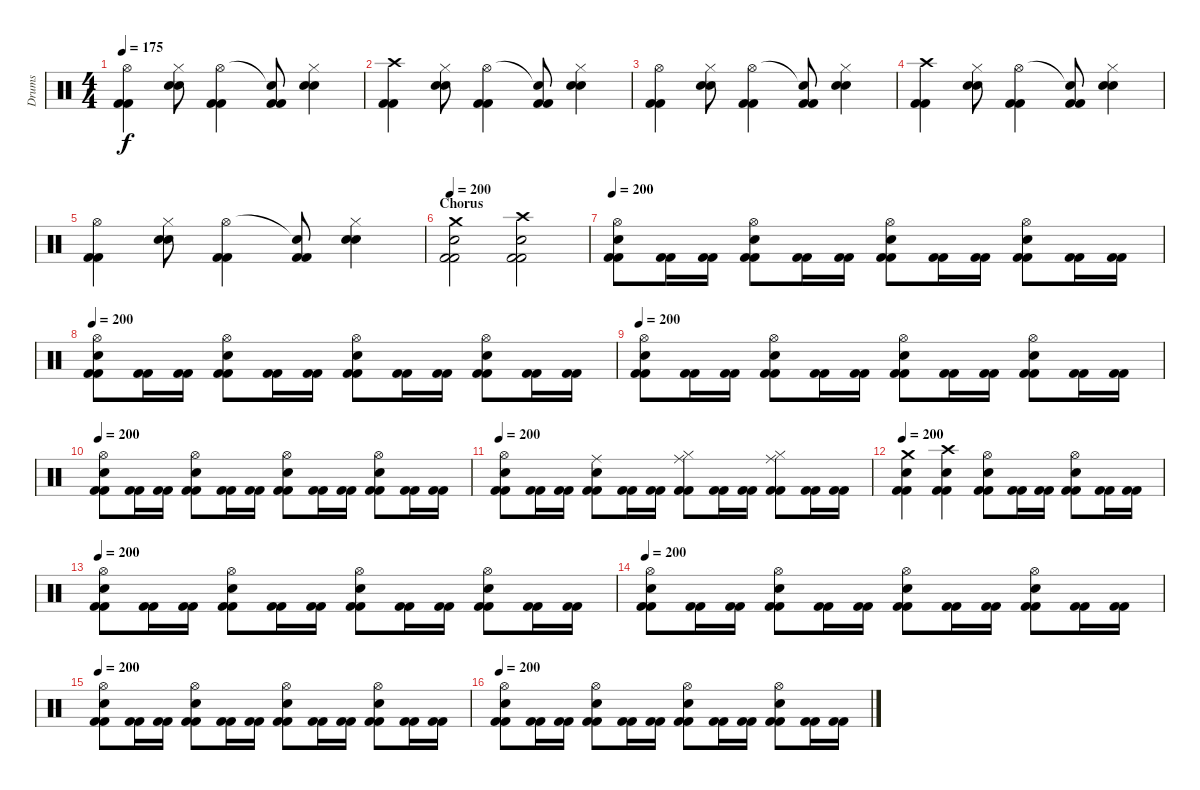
\track ("Drums" "Drums") {instrument percussion}
\staff {score}
\articulation defaults
\ts (4 4)
\tempo 175
\clef neutral
\ks c
("Hi-Hat (open)" "Kick (hit) 2" "Kick (hit) 2").4{dy f} ("Hi-Hat (closed)" "Snare (hit) 2" "Snare (hit) 2").8 ("Hi-Hat (open)" "Kick (hit) 2" "Kick (hit) 2").4 ("Snare (hit)"{t} "Kick (hit) 2" "Kick (hit) 2").8 ("Hi-Hat (closed)" "Snare (hit) 2" "Snare (hit) 2").4 |
("Crash high (hit)" "Kick (hit) 2" "Kick (hit) 2").4 ("Hi-Hat (closed)" "Snare (hit) 2" "Snare (hit) 2").8 ("Hi-Hat (open)" "Kick (hit) 2" "Kick (hit) 2").4 ("Snare (hit)"{t} "Kick (hit) 2" "Kick (hit) 2").8 ("Hi-Hat (closed)" "Snare (hit) 2" "Snare (hit) 2").4 |
("Hi-Hat (open)" "Kick (hit) 2" "Kick (hit) 2").4 ("Hi-Hat (closed)" "Snare (hit) 2" "Snare (hit) 2").8 ("Hi-Hat (open)" "Kick (hit) 2" "Kick (hit) 2").4 ("Snare (hit)"{t} "Kick (hit) 2" "Kick (hit) 2").8 ("Hi-Hat (closed)" "Snare (hit) 2" "Snare (hit) 2").4 |
("Crash high (hit)" "Kick (hit) 2" "Kick (hit) 2").4 ("Hi-Hat (closed)" "Snare (hit) 2" "Snare (hit) 2").8 ("Hi-Hat (open)" "Kick (hit) 2" "Kick (hit) 2").4 ("Snare (hit)"{t} "Kick (hit) 2" "Kick (hit) 2").8 ("Hi-Hat (closed)" "Snare (hit) 2" "Snare (hit) 2").4 |
("Hi-Hat (open)" "Kick (hit) 2" "Kick (hit) 2").4 ("Hi-Hat (closed)" "Snare (hit) 2" "Snare (hit) 2").8 ("Hi-Hat (open)" "Kick (hit) 2" "Kick (hit) 2").4 ("Snare (hit)"{t} "Kick (hit) 2" "Kick (hit) 2").8 ("Hi-Hat (closed)" "Snare (hit) 2" "Snare (hit) 2").4 |
\section ("" "Chorus")
\tempo 200
("Crash medium (hit)" "Snare (hit) 2" "Kick (hit) 2" "Kick (hit) 2").2 ("Crash high (hit)" "Snare (hit) 2" "Kick (hit) 2" "Kick (hit) 2").2 |
\tempo 200
("Hi-Hat (open)" "Snare (hit) 2" "Kick (hit) 2" "Kick (hit) 2").8 ("Kick (hit) 2" "Kick (hit) 2").16 ("Kick (hit) 2" "Kick (hit) 2").16 ("Hi-Hat (open)" "Snare (hit) 2" "Kick (hit) 2" "Kick (hit) 2").8 ("Kick (hit) 2" "Kick (hit) 2").16 ("Kick (hit) 2" "Kick (hit) 2").16 ("Hi-Hat (open)" "Snare (hit) 2" "Kick (hit) 2" "Kick (hit) 2").8 ("Kick (hit) 2" "Kick (hit) 2").16 ("Kick (hit) 2" "Kick (hit) 2").16 ("Hi-Hat (open)" "Snare (hit) 2" "Kick (hit) 2" "Kick (hit) 2").8 ("Kick (hit) 2" "Kick (hit) 2").16 ("Kick (hit) 2" "Kick (hit) 2").16 |
\tempo 200
("Hi-Hat (open)" "Snare (hit) 2" "Kick (hit) 2" "Kick (hit) 2").8 ("Kick (hit) 2" "Kick (hit) 2").16 ("Kick (hit) 2" "Kick (hit) 2").16 ("Hi-Hat (open)" "Snare (hit) 2" "Kick (hit) 2" "Kick (hit) 2").8 ("Kick (hit) 2" "Kick (hit) 2").16 ("Kick (hit) 2" "Kick (hit) 2").16 ("Hi-Hat (open)" "Snare (hit) 2" "Kick (hit) 2" "Kick (hit) 2").8 ("Kick (hit) 2" "Kick (hit) 2").16 ("Kick (hit) 2" "Kick (hit) 2").16 ("Hi-Hat (open)" "Snare (hit) 2" "Kick (hit) 2" "Kick (hit) 2").8 ("Kick (hit) 2" "Kick (hit) 2").16 ("Kick (hit) 2" "Kick (hit) 2").16 |
\tempo 200
("Hi-Hat (open)" "Snare (hit) 2" "Kick (hit) 2" "Kick (hit) 2").8 ("Kick (hit) 2" "Kick (hit) 2").16 ("Kick (hit) 2" "Kick (hit) 2").16 ("Hi-Hat (open)" "Snare (hit) 2" "Kick (hit) 2" "Kick (hit) 2").8 ("Kick (hit) 2" "Kick (hit) 2").16 ("Kick (hit) 2" "Kick (hit) 2").16 ("Hi-Hat (open)" "Snare (hit) 2" "Kick (hit) 2" "Kick (hit) 2").8 ("Kick (hit) 2" "Kick (hit) 2").16 ("Kick (hit) 2" "Kick (hit) 2").16 ("Hi-Hat (open)" "Snare (hit) 2" "Kick (hit) 2" "Kick (hit) 2").8 ("Kick (hit) 2" "Kick (hit) 2").16 ("Kick (hit) 2" "Kick (hit) 2").16 |
\tempo 200
("Hi-Hat (open)" "Snare (hit) 2" "Kick (hit) 2" "Kick (hit) 2").8 ("Kick (hit) 2" "Kick (hit) 2").16 ("Kick (hit) 2" "Kick (hit) 2").16 ("Hi-Hat (open)" "Snare (hit) 2" "Kick (hit) 2" "Kick (hit) 2").8 ("Kick (hit) 2" "Kick (hit) 2").16 ("Kick (hit) 2" "Kick (hit) 2").16 ("Hi-Hat (open)" "Snare (hit) 2" "Kick (hit) 2" "Kick (hit) 2").8 ("Kick (hit) 2" "Kick (hit) 2").16 ("Kick (hit) 2" "Kick (hit) 2").16 ("Hi-Hat (open)" "Snare (hit) 2" "Kick (hit) 2" "Kick (hit) 2").8 ("Kick (hit) 2" "Kick (hit) 2").16 ("Kick (hit) 2" "Kick (hit) 2").16 |
\tempo 200
("Hi-Hat (open)" "Snare (hit) 2" "Kick (hit) 2" "Kick (hit) 2").8 ("Kick (hit) 2" "Kick (hit) 2").16 ("Kick (hit) 2" "Kick (hit) 2").16 ("Ride (middle)" "Snare (hit) 2" "Kick (hit) 2" "Kick (hit) 2").8 ("Kick (hit) 2" "Kick (hit) 2").16 ("Kick (hit) 2" "Kick (hit) 2").16 ("Ride (middle)" "Hi-Hat (closed)" "Kick (hit) 2" "Kick (hit) 2").8 ("Kick (hit) 2" "Kick (hit) 2").16 ("Kick (hit) 2" "Kick (hit) 2").16 ("Ride (middle)" "Hi-Hat (closed)" "Kick (hit) 2" "Kick (hit) 2").8 ("Kick (hit) 2" "Kick (hit) 2").16 ("Kick (hit) 2" "Kick (hit) 2").16 |
\tempo 200
("Crash medium (hit)" "Snare (hit) 2" "Kick (hit) 2" "Kick (hit) 2").4 ("Crash high (hit)" "Snare (hit) 2" "Kick (hit) 2" "Kick (hit) 2").4 ("Hi-Hat (open)" "Snare (hit) 2" "Kick (hit) 2" "Kick (hit) 2").8 ("Kick (hit) 2" "Kick (hit) 2").16 ("Kick (hit) 2" "Kick (hit) 2").16 ("Hi-Hat (open)" "Snare (hit) 2" "Kick (hit) 2" "Kick (hit) 2").8 ("Kick (hit) 2" "Kick (hit) 2").16 ("Kick (hit) 2" "Kick (hit) 2").16 |
\tempo 200
("Hi-Hat (open)" "Snare (hit) 2" "Kick (hit) 2" "Kick (hit) 2").8 ("Kick (hit) 2" "Kick (hit) 2").16 ("Kick (hit) 2" "Kick (hit) 2").16 ("Hi-Hat (open)" "Snare (hit) 2" "Kick (hit) 2" "Kick (hit) 2").8 ("Kick (hit) 2" "Kick (hit) 2").16 ("Kick (hit) 2" "Kick (hit) 2").16 ("Hi-Hat (open)" "Snare (hit) 2" "Kick (hit) 2" "Kick (hit) 2").8 ("Kick (hit) 2" "Kick (hit) 2").16 ("Kick (hit) 2" "Kick (hit) 2").16 ("Hi-Hat (open)" "Snare (hit) 2" "Kick (hit) 2" "Kick (hit) 2").8 ("Kick (hit) 2" "Kick (hit) 2").16 ("Kick (hit) 2" "Kick (hit) 2").16 |
\tempo 200
("Hi-Hat (open)" "Snare (hit) 2" "Kick (hit) 2" "Kick (hit) 2").8 ("Kick (hit) 2" "Kick (hit) 2").16 ("Kick (hit) 2" "Kick (hit) 2").16 ("Hi-Hat (open)" "Snare (hit) 2" "Kick (hit) 2" "Kick (hit) 2").8 ("Kick (hit) 2" "Kick (hit) 2").16 ("Kick (hit) 2" "Kick (hit) 2").16 ("Hi-Hat (open)" "Snare (hit) 2" "Kick (hit) 2" "Kick (hit) 2").8 ("Kick (hit) 2" "Kick (hit) 2").16 ("Kick (hit) 2" "Kick (hit) 2").16 ("Hi-Hat (open)" "Snare (hit) 2" "Kick (hit) 2" "Kick (hit) 2").8 ("Kick (hit) 2" "Kick (hit) 2").16 ("Kick (hit) 2" "Kick (hit) 2").16 |
\tempo 200
("Hi-Hat (open)" "Snare (hit) 2" "Kick (hit) 2" "Kick (hit) 2").8 ("Kick (hit) 2" "Kick (hit) 2").16 ("Kick (hit) 2" "Kick (hit) 2").16 ("Hi-Hat (open)" "Snare (hit) 2" "Kick (hit) 2" "Kick (hit) 2").8 ("Kick (hit) 2" "Kick (hit) 2").16 ("Kick (hit) 2" "Kick (hit) 2").16 ("Hi-Hat (open)" "Snare (hit) 2" "Kick (hit) 2" "Kick (hit) 2").8 ("Kick (hit) 2" "Kick (hit) 2").16 ("Kick (hit) 2" "Kick (hit) 2").16 ("Hi-Hat (open)" "Snare (hit) 2" "Kick (hit) 2" "Kick (hit) 2").8 ("Kick (hit) 2" "Kick (hit) 2").16 ("Kick (hit) 2" "Kick (hit) 2").16 |
\tempo 200
("Hi-Hat (open)" "Snare (hit) 2" "Kick (hit) 2" "Kick (hit) 2").8 ("Kick (hit) 2" "Kick (hit) 2").16 ("Kick (hit) 2" "Kick (hit) 2").16 ("Hi-Hat (open)" "Snare (hit) 2" "Kick (hit) 2" "Kick (hit) 2").8 ("Kick (hit) 2" "Kick (hit) 2").16 ("Kick (hit) 2" "Kick (hit) 2").16 ("Hi-Hat (open)" "Snare (hit) 2" "Kick (hit) 2" "Kick (hit) 2").8 ("Kick (hit) 2" "Kick (hit) 2").16 ("Kick (hit) 2" "Kick (hit) 2").16 ("Hi-Hat (open)" "Snare (hit) 2" "Kick (hit) 2" "Kick (hit) 2").8 ("Kick (hit) 2" "Kick (hit) 2").16 ("Kick (hit) 2" "Kick (hit) 2").16
